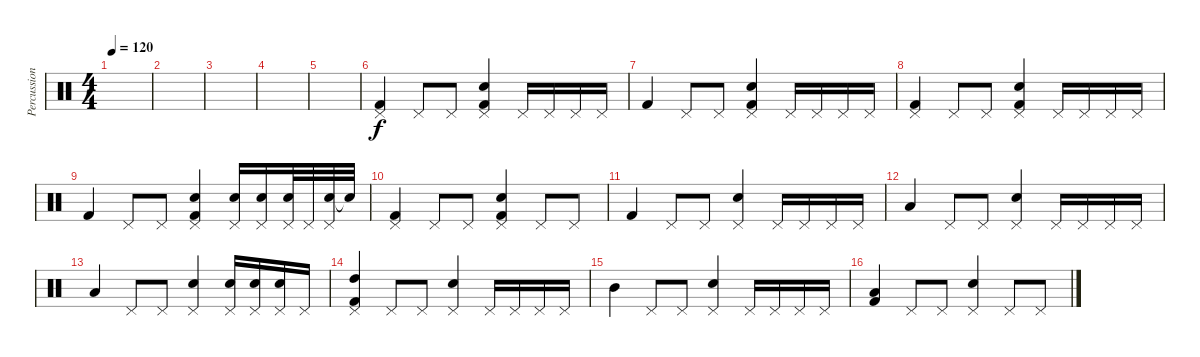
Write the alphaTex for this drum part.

\track ("Percussion" "Percussion") {instrument percussion}
\staff {score}
\articulation defaults
\ts (4 4)
\tempo 120
\clef neutral
\ks c
|
|
|
|
|
("Kick (hit) 2" "Pedal Hi-Hat (hit)").4 "Pedal Hi-Hat (hit)".8 "Pedal Hi-Hat (hit)".8 ("Kick (hit) 2" "Pedal Hi-Hat (hit)" "Snare (hit) 2").4 "Pedal Hi-Hat (hit)".16 "Pedal Hi-Hat (hit)".16 "Pedal Hi-Hat (hit)".16 "Pedal Hi-Hat (hit)".16 |
"Kick (hit) 2".4 "Pedal Hi-Hat (hit)".8 "Pedal Hi-Hat (hit)".8 ("Kick (hit) 2" "Pedal Hi-Hat (hit)" "Snare (hit) 2").4 "Pedal Hi-Hat (hit)".16 "Pedal Hi-Hat (hit)".16 "Pedal Hi-Hat (hit)".16 "Pedal Hi-Hat (hit)".16 |
("Pedal Hi-Hat (hit)" "Kick (hit) 2").4 "Pedal Hi-Hat (hit)".8 "Pedal Hi-Hat (hit)".8 ("Kick (hit) 2" "Pedal Hi-Hat (hit)" "Snare (hit) 2").4 "Pedal Hi-Hat (hit)".16 "Pedal Hi-Hat (hit)".16 "Pedal Hi-Hat (hit)".16 "Pedal Hi-Hat (hit)".16 |
"Kick (hit) 2".4 "Pedal Hi-Hat (hit)".8 "Pedal Hi-Hat (hit)".8 ("Kick (hit) 2" "Pedal Hi-Hat (hit)" "Snare (hit) 2").4 ("Snare (hit) 2" "Pedal Hi-Hat (hit)").16 ("Snare (hit) 2" "Pedal Hi-Hat (hit)").16 ("Snare (hit) 2" "Pedal Hi-Hat (hit)").32 "Pedal Hi-Hat (hit)".32 ("Snare (hit)" "Pedal Hi-Hat (hit)").32 "Snare (hit)"{t}.32 |
("Kick (hit) 2" "Pedal Hi-Hat (hit)").4 "Pedal Hi-Hat (hit)".8 "Pedal Hi-Hat (hit)".8 ("Kick (hit) 2" "Pedal Hi-Hat (hit)" "Snare (hit) 2").4 "Pedal Hi-Hat (hit)".8 "Pedal Hi-Hat (hit)".8 |
"Kick (hit) 2".4 "Pedal Hi-Hat (hit)".8 "Pedal Hi-Hat (hit)".8 ("Pedal Hi-Hat (hit)" "Snare (hit) 2").4 "Pedal Hi-Hat (hit)".16 "Pedal Hi-Hat (hit)".16 "Pedal Hi-Hat (hit)".16 "Pedal Hi-Hat (hit)".16 |
"Low Tom (hit)".4 "Pedal Hi-Hat (hit)".8 "Pedal Hi-Hat (hit)".8 ("Pedal Hi-Hat (hit)" "Snare (hit) 2").4 "Pedal Hi-Hat (hit)".16 "Pedal Hi-Hat (hit)".16 "Pedal Hi-Hat (hit)".16 "Pedal Hi-Hat (hit)".16 |
"Low Tom (hit)".4 "Pedal Hi-Hat (hit)".8 "Pedal Hi-Hat (hit)".8 ("Pedal Hi-Hat (hit)" "Snare (hit) 2").4 ("Snare (hit) 2" "Pedal Hi-Hat (hit)").16 ("Snare (hit) 2" "Pedal Hi-Hat (hit)").16 ("Snare (hit) 2" "Pedal Hi-Hat (hit)").16 "Pedal Hi-Hat (hit)".16 |
("Kick (hit) 2" "Pedal Hi-Hat (hit)" "High Tom (hit)").4 "Pedal Hi-Hat (hit)".8 "Pedal Hi-Hat (hit)".8 ("Pedal Hi-Hat (hit)" "Snare (hit) 2").4 "Pedal Hi-Hat (hit)".16 "Pedal Hi-Hat (hit)".16 "Pedal Hi-Hat (hit)".16 "Pedal Hi-Hat (hit)".16 |
"Mid Tom (hit)".4 "Pedal Hi-Hat (hit)".8 "Pedal Hi-Hat (hit)".8 ("Pedal Hi-Hat (hit)" "Snare (hit) 2").4 "Pedal Hi-Hat (hit)".16 "Pedal Hi-Hat (hit)".16 "Pedal Hi-Hat (hit)".16 "Pedal Hi-Hat (hit)".16 |
("Low Tom (hit)" "Kick (hit) 2").4 "Pedal Hi-Hat (hit)".8 "Pedal Hi-Hat (hit)".8 ("Pedal Hi-Hat (hit)" "Snare (hit) 2").4 "Pedal Hi-Hat (hit)".8 "Pedal Hi-Hat (hit)".8
